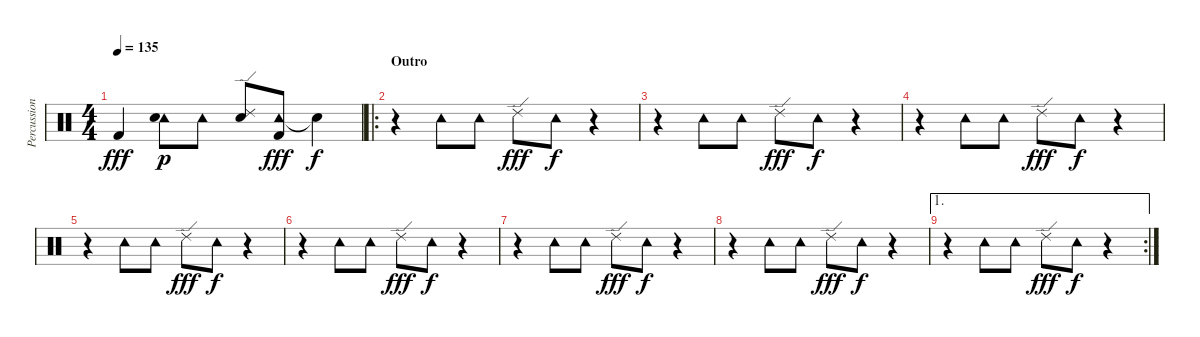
\track ("Percussion" "Percussion") {instrument percussion}
\staff {score}
\articulation defaults
\ts (4 4)
\tempo 135
\clef neutral
\ks c "Kick (hit) 2".4{dy fff}
("Tambourine (hit)" "Snare (hit)"{t}).8{dy p} "Tambourine (hit)".8 ("Snare (hit) 2" "Ride (edge) 2").8 ("Tambourine (hit)" "Kick (hit) 2").8{dy fff} "Snare (hit)"{t}.4{dy f} |
\ro
\section ("" "Outro")
r.4 "Tambourine (hit)".8 "Tambourine (hit)".8 "Ride (edge) 2".8{dy fff} "Tambourine (hit)".8{dy f} r.4 |
r.4 "Tambourine (hit)".8 "Tambourine (hit)".8 "Ride (edge) 2".8{dy fff} "Tambourine (hit)".8{dy f} r.4 |
r.4 "Tambourine (hit)".8 "Tambourine (hit)".8 "Ride (edge) 2".8{dy fff} "Tambourine (hit)".8{dy f} r.4 |
r.4 "Tambourine (hit)".8 "Tambourine (hit)".8 "Ride (edge) 2".8{dy fff} "Tambourine (hit)".8{dy f} r.4 |
r.4 "Tambourine (hit)".8 "Tambourine (hit)".8 "Ride (edge) 2".8{dy fff} "Tambourine (hit)".8{dy f} r.4 |
r.4 "Tambourine (hit)".8 "Tambourine (hit)".8 "Ride (edge) 2".8{dy fff} "Tambourine (hit)".8{dy f} r.4 |
r.4 "Tambourine (hit)".8 "Tambourine (hit)".8 "Ride (edge) 2".8{dy fff} "Tambourine (hit)".8{dy f} r.4 |
\ae 1
\rc 2
r.4 "Tambourine (hit)".8 "Tambourine (hit)".8 "Ride (edge) 2".8{dy fff} "Tambourine (hit)".8{dy f} r.4
